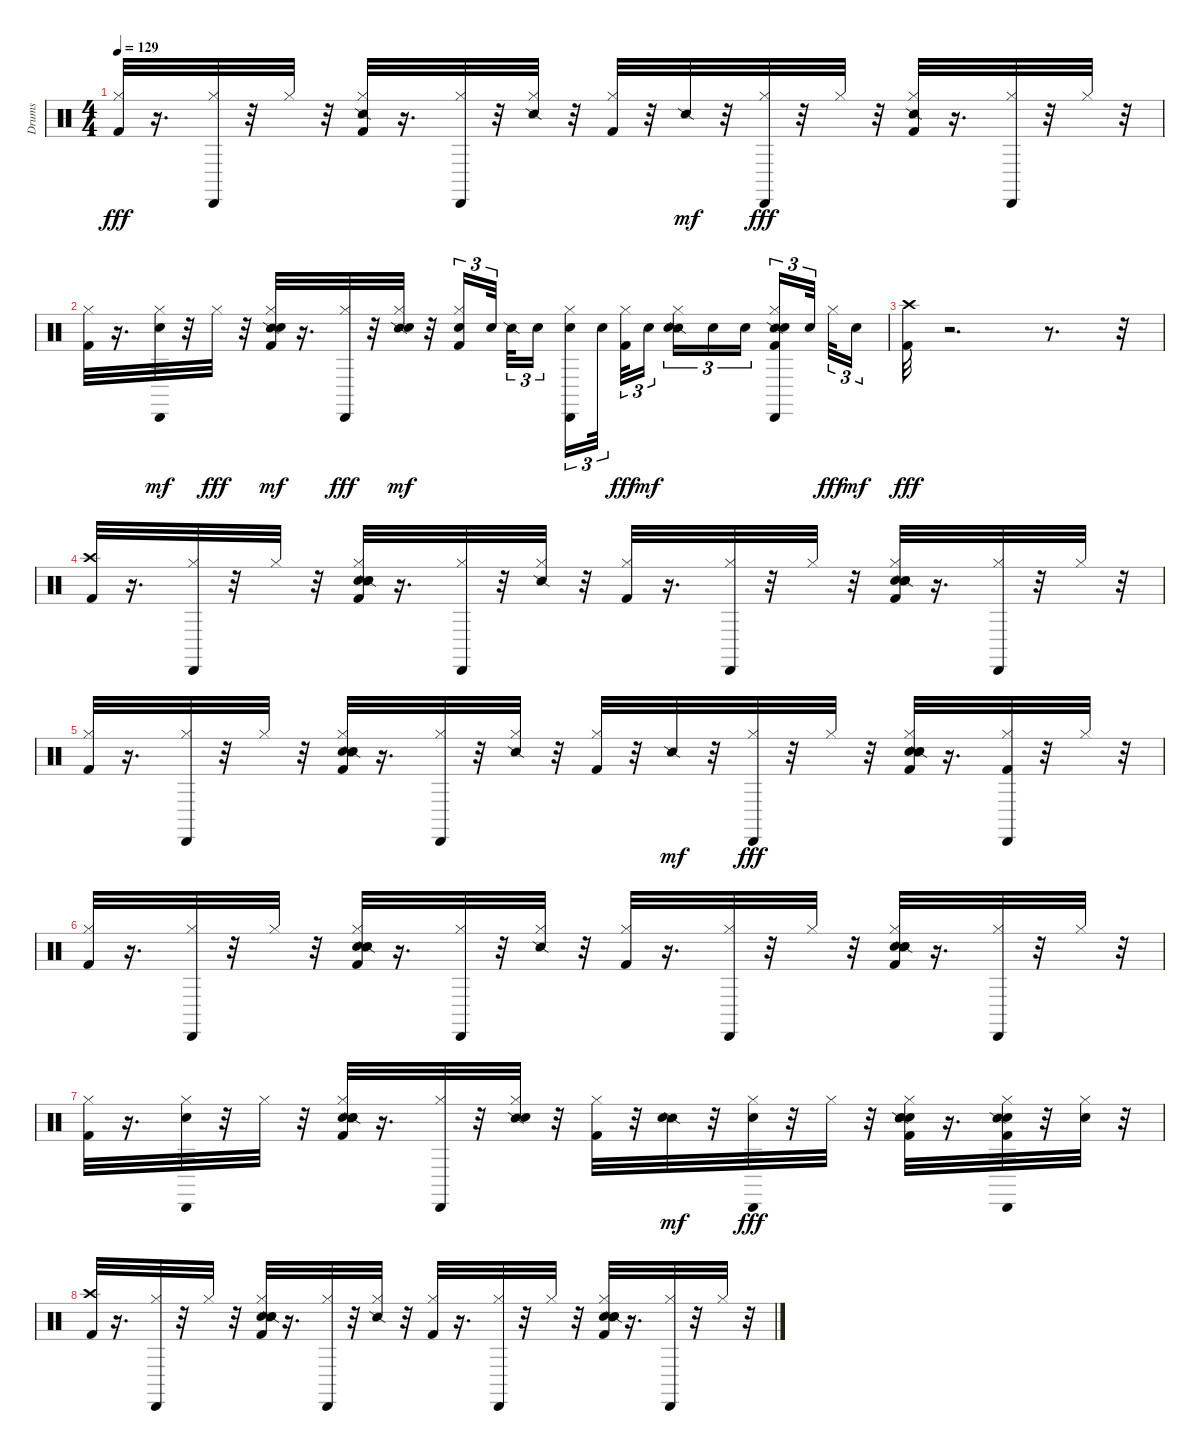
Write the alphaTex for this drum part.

\track ("Drums" "Drums") {instrument percussion}
\staff {score}
\articulation defaults
\ts (4 4)
\tempo 129
\clef neutral
\ks c
("Kick (hit) 2" "Hi-Hat (closed)").32{dy fff} r.16{d} ("Cabasa (hit)" "Hi-Hat (closed)").32 r.32 "Hi-Hat (closed)".32 r.32 ("Snare (side stick) 2" "Hi-Hat (closed)" "Kick (hit) 2").32 r.16{d} ("Cabasa (hit)" "Hi-Hat (closed)").32 r.32 ("Snare (side stick) 2" "Hi-Hat (closed)").32 r.32 ("Kick (hit) 2" "Hi-Hat (closed)").32 r.32 "Snare (side stick) 2".32{dy mf} r.32 ("Cabasa (hit)" "Hi-Hat (closed)").32{dy fff} r.32 "Hi-Hat (closed)".32 r.32 ("Snare (side stick) 2" "Hi-Hat (closed)" "Kick (hit) 2").32 r.16{d} ("Cabasa (hit)" "Hi-Hat (closed)").32 r.32 "Hi-Hat (closed)".32 r.32 |
("Kick (hit) 2" "Hi-Hat (closed)").32 r.16{d} ("Cabasa (hit)" "Hi-Hat (closed)" "Hand Clap (hit)").32{dy mf} r.32 "Hi-Hat (closed)".32{dy fff} r.32 ("Snare (side stick) 2" "Hi-Hat (closed)" "Kick (hit) 2" "Hand Clap (hit)").32{dy mf} r.16{d} ("Cabasa (hit)" "Hi-Hat (closed)").32{dy fff} r.32 ("Snare (side stick) 2" "Hi-Hat (closed)" "Hand Clap (hit)").32{dy mf} r.32 ("Kick (hit) 2" "Hi-Hat (closed)" "Hand Clap (hit)").16{tu (3 2)} "Hand Clap (hit)".32{tu (3 2) beam splitsecondary} "Snare (side stick) 2".32{tu (3 2)} "Hand Clap (hit)".16{tu (3 2) beam splitsecondary} ("Cabasa (hit)" "Hi-Hat (closed)" "Hand Clap (hit)").16{tu (3 2)} "Hand Clap (hit)".32{tu (3 2) beam splitsecondary} ("Hi-Hat (closed)" "Kick (hit) 2").32{tu (3 2) dy fff} "Hand Clap (hit)".16{tu (3 2) dy mf} ("Snare (side stick) 2" "Hi-Hat (closed)" "Hand Clap (hit)").16{tu (3 2)} "Hand Clap (hit)".16{tu (3 2)} "Hand Clap (hit)".16{tu (3 2) beam splitsecondary} ("Kick (hit) 2" "Cabasa (hit)" "Hi-Hat (closed)" "Snare (side stick) 2" "Hand Clap (hit)").16{tu (3 2)} "Hand Clap (hit)".32{tu (3 2) beam splitsecondary} "Hi-Hat (closed)".32{tu (3 2) dy fff} "Hand Clap (hit)".16{tu (3 2) dy mf} |
("Kick (hit) 2" "Crash high (hit)").32{dy fff} r.2{d} r.8{d} r.32 |
("Kick (hit) 2" "Crash high (hit)").32 r.16{d} ("Cabasa (hit)" "Hi-Hat (closed)").32 r.32 "Hi-Hat (closed)".32 r.32 ("Snare (hit)" "Hand Clap (hit)" "Snare (side stick) 2" "Hi-Hat (closed)" "Kick (hit) 2").32 r.16{d} ("Cabasa (hit)" "Hi-Hat (closed)").32 r.32 ("Snare (side stick) 2" "Hi-Hat (closed)").32 r.32 ("Kick (hit) 2" "Hi-Hat (closed)").32 r.16{d} ("Cabasa (hit)" "Hi-Hat (closed)").32 r.32 "Hi-Hat (closed)".32 r.32 ("Snare (hit)" "Hand Clap (hit)" "Snare (side stick) 2" "Hi-Hat (closed)" "Kick (hit) 2").32 r.16{d} ("Cabasa (hit)" "Hi-Hat (closed)").32 r.32 "Hi-Hat (closed)".32 r.32 |
("Kick (hit) 2" "Hi-Hat (closed)").32 r.16{d} ("Cabasa (hit)" "Hi-Hat (closed)").32 r.32 "Hi-Hat (closed)".32 r.32 ("Snare (hit)" "Hand Clap (hit)" "Snare (side stick) 2" "Hi-Hat (closed)" "Kick (hit) 2").32 r.16{d} ("Cabasa (hit)" "Hi-Hat (closed)").32 r.32 ("Snare (side stick) 2" "Hi-Hat (closed)").32 r.32 ("Kick (hit) 2" "Hi-Hat (closed)").32 r.32 "Snare (side stick) 2".32{dy mf} r.32 ("Cabasa (hit)" "Hi-Hat (closed)").32{dy fff} r.32 "Hi-Hat (closed)".32 r.32 ("Snare (hit)" "Hand Clap (hit)" "Snare (side stick) 2" "Hi-Hat (closed)" "Kick (hit) 2").32 r.16{d} ("Kick (hit) 2" "Cabasa (hit)" "Hi-Hat (closed)").32 r.32 "Hi-Hat (closed)".32 r.32 |
("Kick (hit) 2" "Hi-Hat (closed)").32 r.16{d} ("Cabasa (hit)" "Hi-Hat (closed)").32 r.32 "Hi-Hat (closed)".32 r.32 ("Snare (hit)" "Snare (side stick) 2" "Hi-Hat (closed)" "Kick (hit) 2" "Hand Clap (hit)").32 r.16{d} ("Cabasa (hit)" "Hi-Hat (closed)").32 r.32 ("Snare (side stick) 2" "Hi-Hat (closed)").32 r.32 ("Kick (hit) 2" "Hi-Hat (closed)").32 r.16{d} ("Cabasa (hit)" "Hi-Hat (closed)").32 r.32 "Hi-Hat (closed)".32 r.32 ("Snare (hit)" "Snare (side stick) 2" "Hi-Hat (closed)" "Kick (hit) 2" "Hand Clap (hit)").32 r.16{d} ("Cabasa (hit)" "Hi-Hat (closed)").32 r.32 "Hi-Hat (closed)".32 r.32 |
("Kick (hit) 2" "Hi-Hat (closed)").32 r.16{d} ("Cabasa (hit)" "Hi-Hat (closed)" "Hand Clap (hit)").32 r.32 "Hi-Hat (closed)".32 r.32 ("Snare (hit)" "Snare (side stick) 2" "Hi-Hat (closed)" "Kick (hit) 2" "Hand Clap (hit)").32 r.16{d} ("Cabasa (hit)" "Hi-Hat (closed)").32 r.32 ("Snare (side stick) 2" "Hi-Hat (closed)" "Hand Clap (hit)").32 r.32 ("Kick (hit) 2" "Hi-Hat (closed)").32 r.32 ("Snare (side stick) 2" "Hand Clap (hit)").32{dy mf} r.32 ("Cabasa (hit)" "Hi-Hat (closed)" "Hand Clap (hit)").32{dy fff} r.32 "Hi-Hat (closed)".32 r.32 ("Snare (hit)" "Snare (side stick) 2" "Hi-Hat (closed)" "Kick (hit) 2" "Hand Clap (hit)").32 r.16{d} ("Kick (hit) 2" "Cabasa (hit)" "Hi-Hat (closed)" "Hand Clap (hit)" "Snare (side stick) 2").32 r.32 ("Hi-Hat (closed)" "Hand Clap (hit)").32 r.32 |
("Kick (hit) 2" "Crash high (hit)").32 r.16{d} ("Cabasa (hit)" "Hi-Hat (closed)").32 r.32 "Hi-Hat (closed)".32 r.32 ("Snare (hit)" "Snare (side stick) 2" "Hi-Hat (closed)" "Kick (hit) 2" "Hand Clap (hit)").32 r.16{d} ("Cabasa (hit)" "Hi-Hat (closed)").32 r.32 ("Snare (side stick) 2" "Hi-Hat (closed)").32 r.32 ("Kick (hit) 2" "Hi-Hat (closed)").32 r.16{d} ("Cabasa (hit)" "Hi-Hat (closed)").32 r.32 "Hi-Hat (closed)".32 r.32 ("Snare (hit)" "Snare (side stick) 2" "Hi-Hat (closed)" "Kick (hit) 2" "Hand Clap (hit)").32 r.16{d} ("Cabasa (hit)" "Hi-Hat (closed)").32 r.32 "Hi-Hat (closed)".32 r.32
